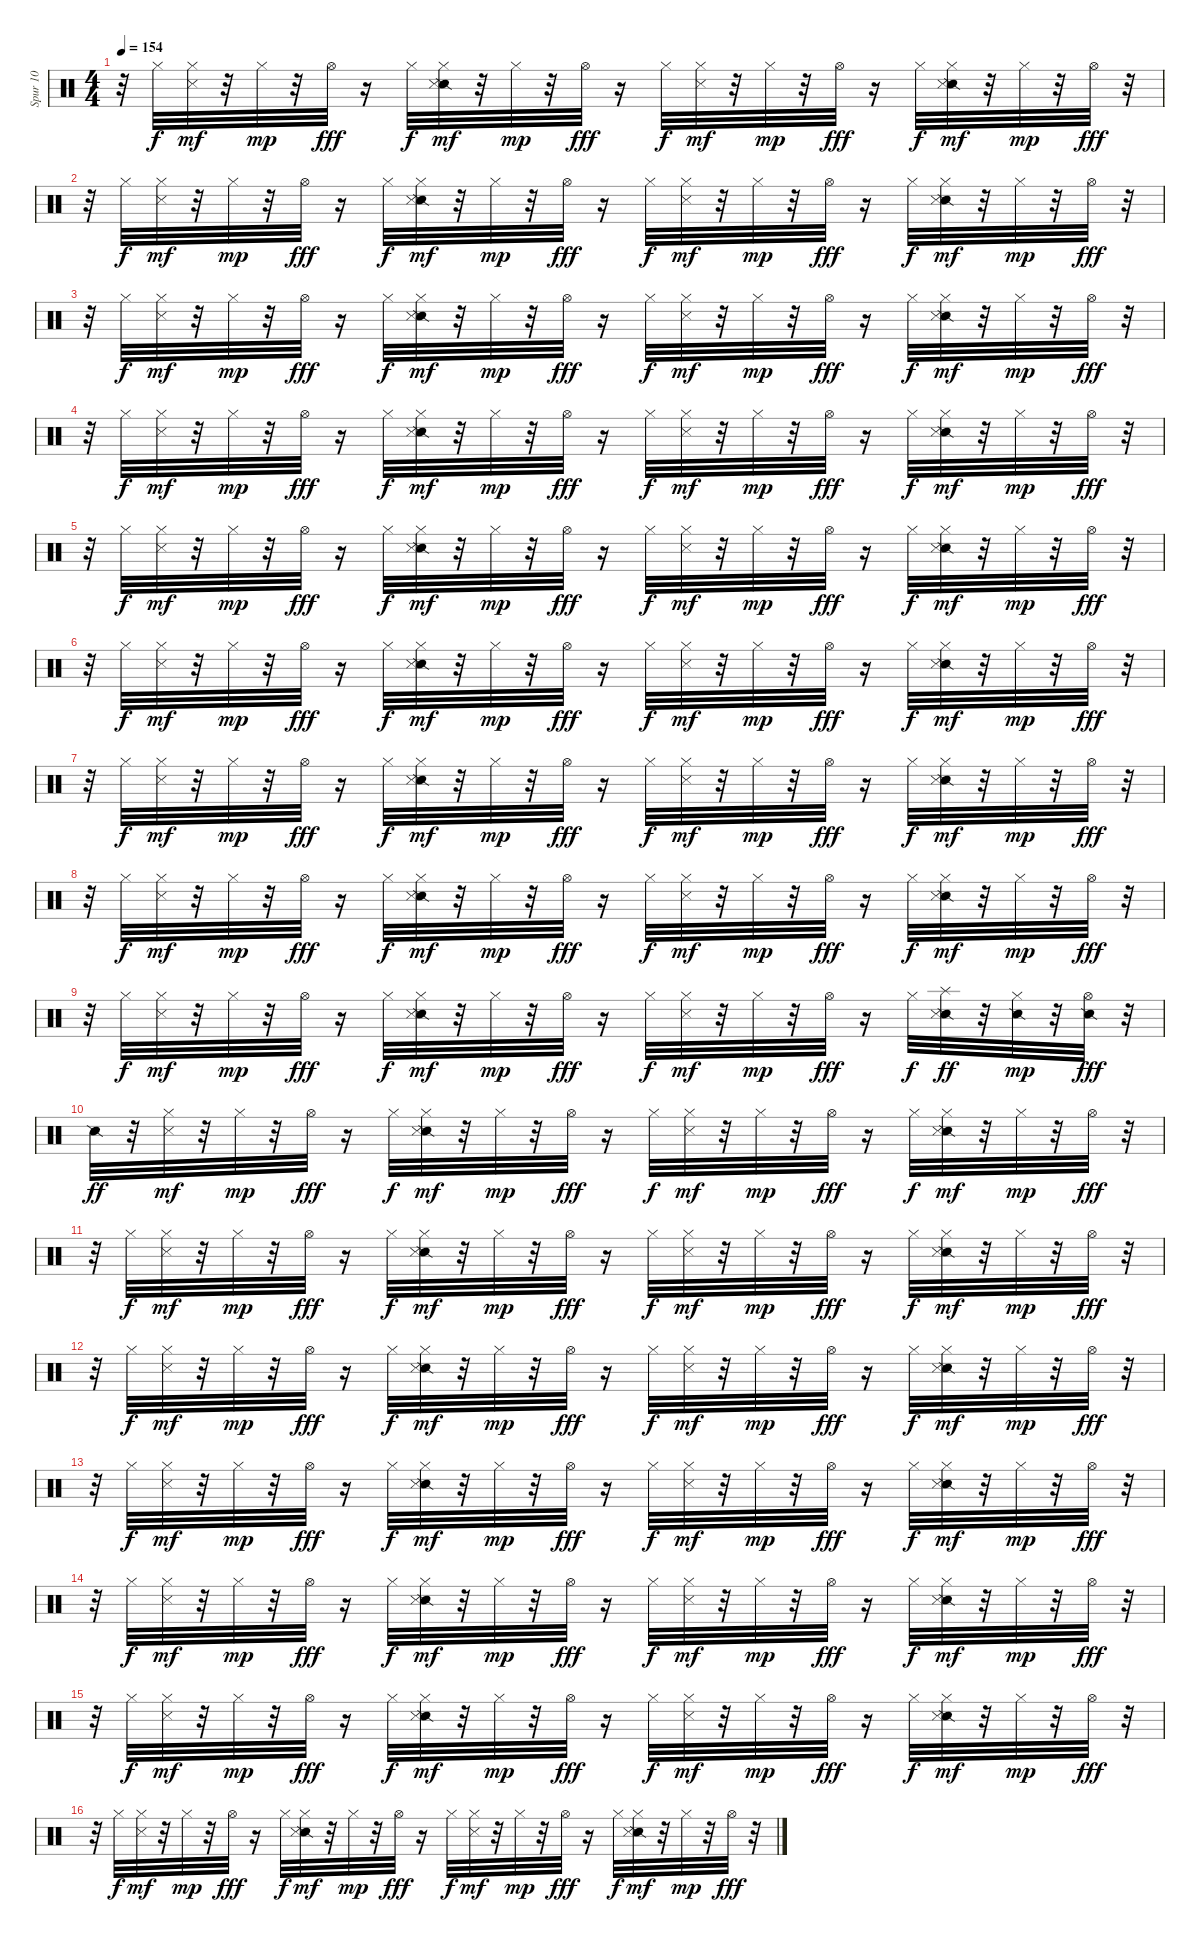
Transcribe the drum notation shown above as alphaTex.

\track ("Spur 10" "Spur 10") {instrument percussion}
\staff {score}
\articulation defaults
\ts (4 4)
\tempo 154
\clef neutral
\ks c
r.32{dy fff} "Hi-Hat (closed)".32{dy f} ("Metronome (hit)" "Hi-Hat (closed)").32{dy mf} r.32 "Hi-Hat (closed)".32{dy mp} r.32 "Hi-Hat (open)".32{dy fff} r.16 "Hi-Hat (closed)".32{dy f} ("Snare (side stick) 2" "Metronome (hit)" "Hi-Hat (closed)").32{dy mf} r.32 "Hi-Hat (closed)".32{dy mp} r.32 "Hi-Hat (open)".32{dy fff} r.16 "Hi-Hat (closed)".32{dy f} ("Metronome (hit)" "Hi-Hat (closed)").32{dy mf} r.32 "Hi-Hat (closed)".32{dy mp} r.32 "Hi-Hat (open)".32{dy fff} r.16 "Hi-Hat (closed)".32{dy f} ("Snare (side stick) 2" "Metronome (hit)" "Hi-Hat (closed)").32{dy mf} r.32 "Hi-Hat (closed)".32{dy mp} r.32 "Hi-Hat (open)".32{dy fff} r.32 |
r.32 "Hi-Hat (closed)".32{dy f} ("Metronome (hit)" "Hi-Hat (closed)").32{dy mf} r.32 "Hi-Hat (closed)".32{dy mp} r.32 "Hi-Hat (open)".32{dy fff} r.16 "Hi-Hat (closed)".32{dy f} ("Snare (side stick) 2" "Metronome (hit)" "Hi-Hat (closed)").32{dy mf} r.32 "Hi-Hat (closed)".32{dy mp} r.32 "Hi-Hat (open)".32{dy fff} r.16 "Hi-Hat (closed)".32{dy f} ("Metronome (hit)" "Hi-Hat (closed)").32{dy mf} r.32 "Hi-Hat (closed)".32{dy mp} r.32 "Hi-Hat (open)".32{dy fff} r.16 "Hi-Hat (closed)".32{dy f} ("Snare (side stick) 2" "Metronome (hit)" "Hi-Hat (closed)").32{dy mf} r.32 "Hi-Hat (closed)".32{dy mp} r.32 "Hi-Hat (open)".32{dy fff} r.32 |
r.32 "Hi-Hat (closed)".32{dy f} ("Metronome (hit)" "Hi-Hat (closed)").32{dy mf} r.32 "Hi-Hat (closed)".32{dy mp} r.32 "Hi-Hat (open)".32{dy fff} r.16 "Hi-Hat (closed)".32{dy f} ("Snare (side stick) 2" "Metronome (hit)" "Hi-Hat (closed)").32{dy mf} r.32 "Hi-Hat (closed)".32{dy mp} r.32 "Hi-Hat (open)".32{dy fff} r.16 "Hi-Hat (closed)".32{dy f} ("Metronome (hit)" "Hi-Hat (closed)").32{dy mf} r.32 "Hi-Hat (closed)".32{dy mp} r.32 "Hi-Hat (open)".32{dy fff} r.16 "Hi-Hat (closed)".32{dy f} ("Snare (side stick) 2" "Metronome (hit)" "Hi-Hat (closed)").32{dy mf} r.32 "Hi-Hat (closed)".32{dy mp} r.32 "Hi-Hat (open)".32{dy fff} r.32 |
r.32 "Hi-Hat (closed)".32{dy f} ("Metronome (hit)" "Hi-Hat (closed)").32{dy mf} r.32 "Hi-Hat (closed)".32{dy mp} r.32 "Hi-Hat (open)".32{dy fff} r.16 "Hi-Hat (closed)".32{dy f} ("Snare (side stick) 2" "Metronome (hit)" "Hi-Hat (closed)").32{dy mf} r.32 "Hi-Hat (closed)".32{dy mp} r.32 "Hi-Hat (open)".32{dy fff} r.16 "Hi-Hat (closed)".32{dy f} ("Metronome (hit)" "Hi-Hat (closed)").32{dy mf} r.32 "Hi-Hat (closed)".32{dy mp} r.32 "Hi-Hat (open)".32{dy fff} r.16 "Hi-Hat (closed)".32{dy f} ("Snare (side stick) 2" "Metronome (hit)" "Hi-Hat (closed)").32{dy mf} r.32 "Hi-Hat (closed)".32{dy mp} r.32 "Hi-Hat (open)".32{dy fff} r.32 |
r.32 "Hi-Hat (closed)".32{dy f} ("Metronome (hit)" "Hi-Hat (closed)").32{dy mf} r.32 "Hi-Hat (closed)".32{dy mp} r.32 "Hi-Hat (open)".32{dy fff} r.16 "Hi-Hat (closed)".32{dy f} ("Snare (side stick) 2" "Metronome (hit)" "Hi-Hat (closed)").32{dy mf} r.32 "Hi-Hat (closed)".32{dy mp} r.32 "Hi-Hat (open)".32{dy fff} r.16 "Hi-Hat (closed)".32{dy f} ("Metronome (hit)" "Hi-Hat (closed)").32{dy mf} r.32 "Hi-Hat (closed)".32{dy mp} r.32 "Hi-Hat (open)".32{dy fff} r.16 "Hi-Hat (closed)".32{dy f} ("Snare (side stick) 2" "Metronome (hit)" "Hi-Hat (closed)").32{dy mf} r.32 "Hi-Hat (closed)".32{dy mp} r.32 "Hi-Hat (open)".32{dy fff} r.32 |
r.32 "Hi-Hat (closed)".32{dy f} ("Metronome (hit)" "Hi-Hat (closed)").32{dy mf} r.32 "Hi-Hat (closed)".32{dy mp} r.32 "Hi-Hat (open)".32{dy fff} r.16 "Hi-Hat (closed)".32{dy f} ("Snare (side stick) 2" "Metronome (hit)" "Hi-Hat (closed)").32{dy mf} r.32 "Hi-Hat (closed)".32{dy mp} r.32 "Hi-Hat (open)".32{dy fff} r.16 "Hi-Hat (closed)".32{dy f} ("Metronome (hit)" "Hi-Hat (closed)").32{dy mf} r.32 "Hi-Hat (closed)".32{dy mp} r.32 "Hi-Hat (open)".32{dy fff} r.16 "Hi-Hat (closed)".32{dy f} ("Snare (side stick) 2" "Metronome (hit)" "Hi-Hat (closed)").32{dy mf} r.32 "Hi-Hat (closed)".32{dy mp} r.32 "Hi-Hat (open)".32{dy fff} r.32 |
r.32 "Hi-Hat (closed)".32{dy f} ("Metronome (hit)" "Hi-Hat (closed)").32{dy mf} r.32 "Hi-Hat (closed)".32{dy mp} r.32 "Hi-Hat (open)".32{dy fff} r.16 "Hi-Hat (closed)".32{dy f} ("Snare (side stick) 2" "Metronome (hit)" "Hi-Hat (closed)").32{dy mf} r.32 "Hi-Hat (closed)".32{dy mp} r.32 "Hi-Hat (open)".32{dy fff} r.16 "Hi-Hat (closed)".32{dy f} ("Metronome (hit)" "Hi-Hat (closed)").32{dy mf} r.32 "Hi-Hat (closed)".32{dy mp} r.32 "Hi-Hat (open)".32{dy fff} r.16 "Hi-Hat (closed)".32{dy f} ("Snare (side stick) 2" "Metronome (hit)" "Hi-Hat (closed)").32{dy mf} r.32 "Hi-Hat (closed)".32{dy mp} r.32 "Hi-Hat (open)".32{dy fff} r.32 |
r.32 "Hi-Hat (closed)".32{dy f} ("Metronome (hit)" "Hi-Hat (closed)").32{dy mf} r.32 "Hi-Hat (closed)".32{dy mp} r.32 "Hi-Hat (open)".32{dy fff} r.16 "Hi-Hat (closed)".32{dy f} ("Snare (side stick) 2" "Metronome (hit)" "Hi-Hat (closed)").32{dy mf} r.32 "Hi-Hat (closed)".32{dy mp} r.32 "Hi-Hat (open)".32{dy fff} r.16 "Hi-Hat (closed)".32{dy f} ("Metronome (hit)" "Hi-Hat (closed)").32{dy mf} r.32 "Hi-Hat (closed)".32{dy mp} r.32 "Hi-Hat (open)".32{dy fff} r.16 "Hi-Hat (closed)".32{dy f} ("Snare (side stick) 2" "Metronome (hit)" "Hi-Hat (closed)").32{dy mf} r.32 "Hi-Hat (closed)".32{dy mp} r.32 "Hi-Hat (open)".32{dy fff} r.32 |
r.32 "Hi-Hat (closed)".32{dy f} ("Metronome (hit)" "Hi-Hat (closed)").32{dy mf} r.32 "Hi-Hat (closed)".32{dy mp} r.32 "Hi-Hat (open)".32{dy fff} r.16 "Hi-Hat (closed)".32{dy f} ("Snare (side stick) 2" "Metronome (hit)" "Hi-Hat (closed)").32{dy mf} r.32 "Hi-Hat (closed)".32{dy mp} r.32 "Hi-Hat (open)".32{dy fff} r.16 "Hi-Hat (closed)".32{dy f} ("Metronome (hit)" "Hi-Hat (closed)").32{dy mf} r.32 "Hi-Hat (closed)".32{dy mp} r.32 "Hi-Hat (open)".32{dy fff} r.16 "Hi-Hat (closed)".32{dy f} ("Snare (side stick) 2" "Metronome (hit)" "Splash (hit)").32{dy ff} r.32 ("Snare (side stick) 2" "Hi-Hat (closed)").32{dy mp} r.32 ("Snare (side stick) 2" "Hi-Hat (open)").32{dy fff} r.32 |
"Snare (side stick) 2".32{dy ff} r.32 ("Metronome (hit)" "Hi-Hat (closed)").32{dy mf} r.32 "Hi-Hat (closed)".32{dy mp} r.32 "Hi-Hat (open)".32{dy fff} r.16 "Hi-Hat (closed)".32{dy f} ("Snare (side stick) 2" "Metronome (hit)" "Hi-Hat (closed)").32{dy mf} r.32 "Hi-Hat (closed)".32{dy mp} r.32 "Hi-Hat (open)".32{dy fff} r.16 "Hi-Hat (closed)".32{dy f} ("Metronome (hit)" "Hi-Hat (closed)").32{dy mf} r.32 "Hi-Hat (closed)".32{dy mp} r.32 "Hi-Hat (open)".32{dy fff} r.16 "Hi-Hat (closed)".32{dy f} ("Snare (side stick) 2" "Metronome (hit)" "Hi-Hat (closed)").32{dy mf} r.32 "Hi-Hat (closed)".32{dy mp} r.32 "Hi-Hat (open)".32{dy fff} r.32 |
r.32 "Hi-Hat (closed)".32{dy f} ("Metronome (hit)" "Hi-Hat (closed)").32{dy mf} r.32 "Hi-Hat (closed)".32{dy mp} r.32 "Hi-Hat (open)".32{dy fff} r.16 "Hi-Hat (closed)".32{dy f} ("Snare (side stick) 2" "Metronome (hit)" "Hi-Hat (closed)").32{dy mf} r.32 "Hi-Hat (closed)".32{dy mp} r.32 "Hi-Hat (open)".32{dy fff} r.16 "Hi-Hat (closed)".32{dy f} ("Metronome (hit)" "Hi-Hat (closed)").32{dy mf} r.32 "Hi-Hat (closed)".32{dy mp} r.32 "Hi-Hat (open)".32{dy fff} r.16 "Hi-Hat (closed)".32{dy f} ("Snare (side stick) 2" "Metronome (hit)" "Hi-Hat (closed)").32{dy mf} r.32 "Hi-Hat (closed)".32{dy mp} r.32 "Hi-Hat (open)".32{dy fff} r.32 |
r.32 "Hi-Hat (closed)".32{dy f} ("Metronome (hit)" "Hi-Hat (closed)").32{dy mf} r.32 "Hi-Hat (closed)".32{dy mp} r.32 "Hi-Hat (open)".32{dy fff} r.16 "Hi-Hat (closed)".32{dy f} ("Snare (side stick) 2" "Metronome (hit)" "Hi-Hat (closed)").32{dy mf} r.32 "Hi-Hat (closed)".32{dy mp} r.32 "Hi-Hat (open)".32{dy fff} r.16 "Hi-Hat (closed)".32{dy f} ("Metronome (hit)" "Hi-Hat (closed)").32{dy mf} r.32 "Hi-Hat (closed)".32{dy mp} r.32 "Hi-Hat (open)".32{dy fff} r.16 "Hi-Hat (closed)".32{dy f} ("Snare (side stick) 2" "Metronome (hit)" "Hi-Hat (closed)").32{dy mf} r.32 "Hi-Hat (closed)".32{dy mp} r.32 "Hi-Hat (open)".32{dy fff} r.32 |
r.32 "Hi-Hat (closed)".32{dy f} ("Metronome (hit)" "Hi-Hat (closed)").32{dy mf} r.32 "Hi-Hat (closed)".32{dy mp} r.32 "Hi-Hat (open)".32{dy fff} r.16 "Hi-Hat (closed)".32{dy f} ("Snare (side stick) 2" "Metronome (hit)" "Hi-Hat (closed)").32{dy mf} r.32 "Hi-Hat (closed)".32{dy mp} r.32 "Hi-Hat (open)".32{dy fff} r.16 "Hi-Hat (closed)".32{dy f} ("Metronome (hit)" "Hi-Hat (closed)").32{dy mf} r.32 "Hi-Hat (closed)".32{dy mp} r.32 "Hi-Hat (open)".32{dy fff} r.16 "Hi-Hat (closed)".32{dy f} ("Snare (side stick) 2" "Metronome (hit)" "Hi-Hat (closed)").32{dy mf} r.32 "Hi-Hat (closed)".32{dy mp} r.32 "Hi-Hat (open)".32{dy fff} r.32 |
r.32 "Hi-Hat (closed)".32{dy f} ("Metronome (hit)" "Hi-Hat (closed)").32{dy mf} r.32 "Hi-Hat (closed)".32{dy mp} r.32 "Hi-Hat (open)".32{dy fff} r.16 "Hi-Hat (closed)".32{dy f} ("Snare (side stick) 2" "Metronome (hit)" "Hi-Hat (closed)").32{dy mf} r.32 "Hi-Hat (closed)".32{dy mp} r.32 "Hi-Hat (open)".32{dy fff} r.16 "Hi-Hat (closed)".32{dy f} ("Metronome (hit)" "Hi-Hat (closed)").32{dy mf} r.32 "Hi-Hat (closed)".32{dy mp} r.32 "Hi-Hat (open)".32{dy fff} r.16 "Hi-Hat (closed)".32{dy f} ("Snare (side stick) 2" "Metronome (hit)" "Hi-Hat (closed)").32{dy mf} r.32 "Hi-Hat (closed)".32{dy mp} r.32 "Hi-Hat (open)".32{dy fff} r.32 |
r.32 "Hi-Hat (closed)".32{dy f} ("Metronome (hit)" "Hi-Hat (closed)").32{dy mf} r.32 "Hi-Hat (closed)".32{dy mp} r.32 "Hi-Hat (open)".32{dy fff} r.16 "Hi-Hat (closed)".32{dy f} ("Snare (side stick) 2" "Metronome (hit)" "Hi-Hat (closed)").32{dy mf} r.32 "Hi-Hat (closed)".32{dy mp} r.32 "Hi-Hat (open)".32{dy fff} r.16 "Hi-Hat (closed)".32{dy f} ("Metronome (hit)" "Hi-Hat (closed)").32{dy mf} r.32 "Hi-Hat (closed)".32{dy mp} r.32 "Hi-Hat (open)".32{dy fff} r.16 "Hi-Hat (closed)".32{dy f} ("Snare (side stick) 2" "Metronome (hit)" "Hi-Hat (closed)").32{dy mf} r.32 "Hi-Hat (closed)".32{dy mp} r.32 "Hi-Hat (open)".32{dy fff} r.32 |
r.32 "Hi-Hat (closed)".32{dy f} ("Metronome (hit)" "Hi-Hat (closed)").32{dy mf} r.32 "Hi-Hat (closed)".32{dy mp} r.32 "Hi-Hat (open)".32{dy fff} r.16 "Hi-Hat (closed)".32{dy f} ("Snare (side stick) 2" "Metronome (hit)" "Hi-Hat (closed)").32{dy mf} r.32 "Hi-Hat (closed)".32{dy mp} r.32 "Hi-Hat (open)".32{dy fff} r.16 "Hi-Hat (closed)".32{dy f} ("Metronome (hit)" "Hi-Hat (closed)").32{dy mf} r.32 "Hi-Hat (closed)".32{dy mp} r.32 "Hi-Hat (open)".32{dy fff} r.16 "Hi-Hat (closed)".32{dy f} ("Snare (side stick) 2" "Metronome (hit)" "Hi-Hat (closed)").32{dy mf} r.32 "Hi-Hat (closed)".32{dy mp} r.32 "Hi-Hat (open)".32{dy fff} r.32
